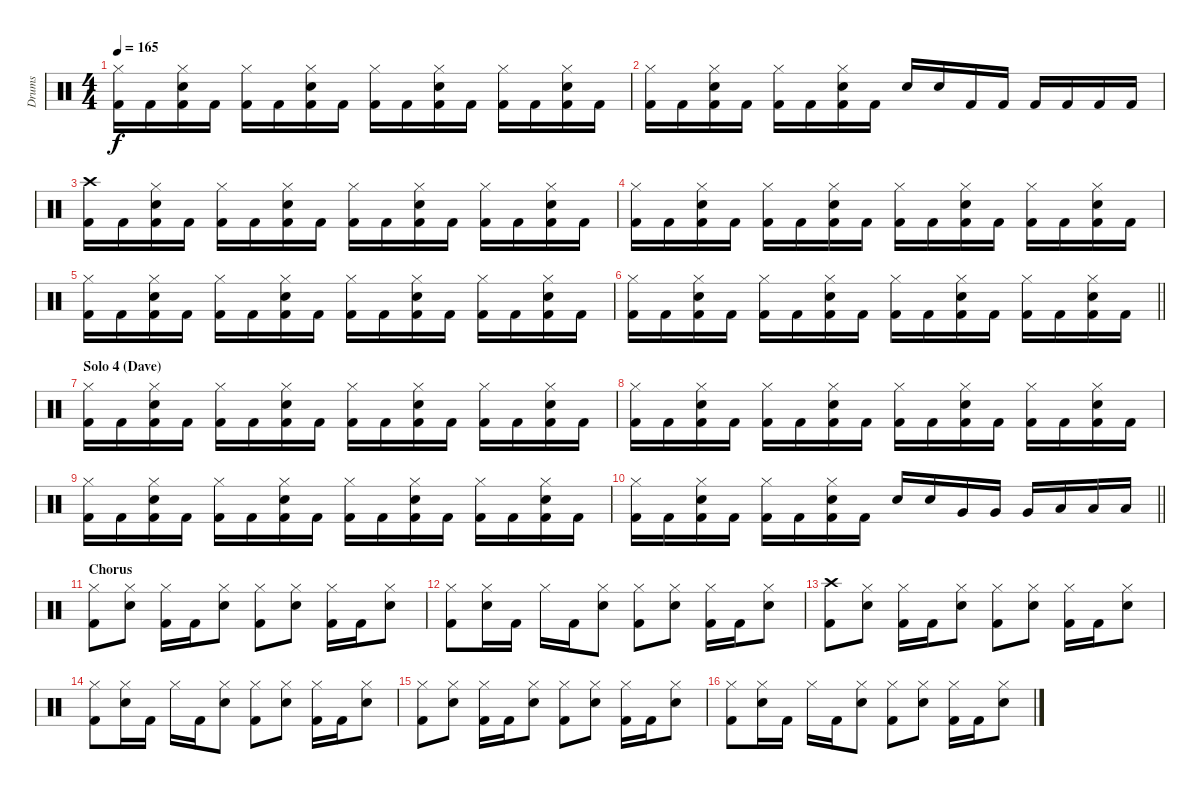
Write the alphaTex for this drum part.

\track ("Drums" "Drums") {instrument percussion}
\staff {score}
\articulation defaults
\ts (4 4)
\tempo 165
\clef neutral
\ks c
("Hi-Hat (closed)" "Kick (hit) 2").16{dy f} "Kick (hit) 2".16 ("Hi-Hat (closed)" "Snare (hit) 2" "Kick (hit) 2").16 "Kick (hit) 2".16 ("Hi-Hat (closed)" "Kick (hit) 2").16 "Kick (hit) 2".16 ("Hi-Hat (closed)" "Snare (hit) 2" "Kick (hit) 2").16 "Kick (hit) 2".16 ("Hi-Hat (closed)" "Kick (hit) 2").16 "Kick (hit) 2".16 ("Hi-Hat (closed)" "Snare (hit) 2" "Kick (hit) 2").16 "Kick (hit) 2".16 ("Hi-Hat (closed)" "Kick (hit) 2").16 "Kick (hit) 2".16 ("Hi-Hat (closed)" "Snare (hit) 2" "Kick (hit) 2").16 "Kick (hit) 2".16 |
("Hi-Hat (closed)" "Kick (hit) 2").16 "Kick (hit) 2".16 ("Hi-Hat (closed)" "Snare (hit) 2" "Kick (hit) 2").16 "Kick (hit) 2".16 ("Hi-Hat (closed)" "Kick (hit) 2").16 "Kick (hit) 2".16 ("Hi-Hat (closed)" "Snare (hit) 2" "Kick (hit) 2").16 "Kick (hit) 2".16 "Snare (hit) 2".16 "Snare (hit) 2".16 "Kick (hit) 2".16 "Kick (hit) 2".16 "Kick (hit) 2".16 "Kick (hit) 2".16 "Kick (hit) 2".16 "Kick (hit) 2".16 |
("Crash high (hit)" "Kick (hit) 2").16 "Kick (hit) 2".16 ("Hi-Hat (closed)" "Snare (hit) 2" "Kick (hit) 2").16 "Kick (hit) 2".16 ("Hi-Hat (closed)" "Kick (hit) 2").16 "Kick (hit) 2".16 ("Hi-Hat (closed)" "Snare (hit) 2" "Kick (hit) 2").16 "Kick (hit) 2".16 ("Hi-Hat (closed)" "Kick (hit) 2").16 "Kick (hit) 2".16 ("Hi-Hat (closed)" "Snare (hit) 2" "Kick (hit) 2").16 "Kick (hit) 2".16 ("Hi-Hat (closed)" "Kick (hit) 2").16 "Kick (hit) 2".16 ("Hi-Hat (closed)" "Snare (hit) 2" "Kick (hit) 2").16 "Kick (hit) 2".16 |
("Hi-Hat (closed)" "Kick (hit) 2").16 "Kick (hit) 2".16 ("Hi-Hat (closed)" "Snare (hit) 2" "Kick (hit) 2").16 "Kick (hit) 2".16 ("Hi-Hat (closed)" "Kick (hit) 2").16 "Kick (hit) 2".16 ("Hi-Hat (closed)" "Snare (hit) 2" "Kick (hit) 2").16 "Kick (hit) 2".16 ("Hi-Hat (closed)" "Kick (hit) 2").16 "Kick (hit) 2".16 ("Hi-Hat (closed)" "Snare (hit) 2" "Kick (hit) 2").16 "Kick (hit) 2".16 ("Hi-Hat (closed)" "Kick (hit) 2").16 "Kick (hit) 2".16 ("Hi-Hat (closed)" "Snare (hit) 2" "Kick (hit) 2").16 "Kick (hit) 2".16 |
("Hi-Hat (closed)" "Kick (hit) 2").16 "Kick (hit) 2".16 ("Hi-Hat (closed)" "Snare (hit) 2" "Kick (hit) 2").16 "Kick (hit) 2".16 ("Hi-Hat (closed)" "Kick (hit) 2").16 "Kick (hit) 2".16 ("Hi-Hat (closed)" "Snare (hit) 2" "Kick (hit) 2").16 "Kick (hit) 2".16 ("Hi-Hat (closed)" "Kick (hit) 2").16 "Kick (hit) 2".16 ("Hi-Hat (closed)" "Snare (hit) 2" "Kick (hit) 2").16 "Kick (hit) 2".16 ("Hi-Hat (closed)" "Kick (hit) 2").16 "Kick (hit) 2".16 ("Hi-Hat (closed)" "Snare (hit) 2" "Kick (hit) 2").16 "Kick (hit) 2".16 |
\barLineRight lightlight
("Hi-Hat (closed)" "Kick (hit) 2").16 "Kick (hit) 2".16 ("Hi-Hat (closed)" "Snare (hit) 2" "Kick (hit) 2").16 "Kick (hit) 2".16 ("Hi-Hat (closed)" "Kick (hit) 2").16 "Kick (hit) 2".16 ("Hi-Hat (closed)" "Snare (hit) 2" "Kick (hit) 2").16 "Kick (hit) 2".16 ("Hi-Hat (closed)" "Kick (hit) 2").16 "Kick (hit) 2".16 ("Hi-Hat (closed)" "Snare (hit) 2" "Kick (hit) 2").16 "Kick (hit) 2".16 ("Hi-Hat (closed)" "Kick (hit) 2").16 "Kick (hit) 2".16 ("Hi-Hat (closed)" "Snare (hit) 2" "Kick (hit) 2").16 "Kick (hit) 2".16 |
\section ("" "Solo 4 (Dave)")
("Hi-Hat (closed)" "Kick (hit) 2").16 "Kick (hit) 2".16 ("Hi-Hat (closed)" "Snare (hit) 2" "Kick (hit) 2").16 "Kick (hit) 2".16 ("Hi-Hat (closed)" "Kick (hit) 2").16 "Kick (hit) 2".16 ("Hi-Hat (closed)" "Snare (hit) 2" "Kick (hit) 2").16 "Kick (hit) 2".16 ("Hi-Hat (closed)" "Kick (hit) 2").16 "Kick (hit) 2".16 ("Hi-Hat (closed)" "Snare (hit) 2" "Kick (hit) 2").16 "Kick (hit) 2".16 ("Hi-Hat (closed)" "Kick (hit) 2").16 "Kick (hit) 2".16 ("Hi-Hat (closed)" "Snare (hit) 2" "Kick (hit) 2").16 "Kick (hit) 2".16 |
("Hi-Hat (closed)" "Kick (hit) 2").16 "Kick (hit) 2".16 ("Hi-Hat (closed)" "Snare (hit) 2" "Kick (hit) 2").16 "Kick (hit) 2".16 ("Hi-Hat (closed)" "Kick (hit) 2").16 "Kick (hit) 2".16 ("Hi-Hat (closed)" "Snare (hit) 2" "Kick (hit) 2").16 "Kick (hit) 2".16 ("Hi-Hat (closed)" "Kick (hit) 2").16 "Kick (hit) 2".16 ("Hi-Hat (closed)" "Snare (hit) 2" "Kick (hit) 2").16 "Kick (hit) 2".16 ("Hi-Hat (closed)" "Kick (hit) 2").16 "Kick (hit) 2".16 ("Hi-Hat (closed)" "Snare (hit) 2" "Kick (hit) 2").16 "Kick (hit) 2".16 |
("Hi-Hat (closed)" "Kick (hit) 2").16 "Kick (hit) 2".16 ("Hi-Hat (closed)" "Snare (hit) 2" "Kick (hit) 2").16 "Kick (hit) 2".16 ("Hi-Hat (closed)" "Kick (hit) 2").16 "Kick (hit) 2".16 ("Hi-Hat (closed)" "Snare (hit) 2" "Kick (hit) 2").16 "Kick (hit) 2".16 ("Hi-Hat (closed)" "Kick (hit) 2").16 "Kick (hit) 2".16 ("Hi-Hat (closed)" "Snare (hit) 2" "Kick (hit) 2").16 "Kick (hit) 2".16 ("Hi-Hat (closed)" "Kick (hit) 2").16 "Kick (hit) 2".16 ("Hi-Hat (closed)" "Snare (hit) 2" "Kick (hit) 2").16 "Kick (hit) 2".16 |
\barLineRight lightlight
("Hi-Hat (closed)" "Kick (hit) 2").16 "Kick (hit) 2".16 ("Hi-Hat (closed)" "Snare (hit) 2" "Kick (hit) 2").16 "Kick (hit) 2".16 ("Hi-Hat (closed)" "Kick (hit) 2").16 "Kick (hit) 2".16 ("Hi-Hat (closed)" "Snare (hit) 2" "Kick (hit) 2").16 "Kick (hit) 2".16 "Snare (hit) 2".16 "Snare (hit) 2".16 "Very Low Tom (hit)".16 "Very Low Tom (hit)".16 "Very Low Tom (hit)".16 "Low Floor Tom (hit)".16 "Low Floor Tom (hit)".16 "Low Floor Tom (hit)".16 |
\section ("" "Chorus")
("Hi-Hat (closed)" "Kick (hit) 2").8 ("Hi-Hat (closed)" "Snare (hit) 2").8 ("Hi-Hat (closed)" "Kick (hit) 2").16 "Kick (hit) 2".16 ("Hi-Hat (closed)" "Snare (hit) 2").8 ("Hi-Hat (closed)" "Kick (hit) 2").8 ("Hi-Hat (closed)" "Snare (hit) 2").8 ("Hi-Hat (closed)" "Kick (hit) 2").16 "Kick (hit) 2".16 ("Hi-Hat (closed)" "Snare (hit) 2").8 |
("Hi-Hat (closed)" "Kick (hit) 2").8 ("Hi-Hat (closed)" "Snare (hit) 2").16 "Kick (hit) 2".16 "Hi-Hat (closed)".16 "Kick (hit) 2".16 ("Hi-Hat (closed)" "Snare (hit) 2").8 ("Hi-Hat (closed)" "Kick (hit) 2").8 ("Hi-Hat (closed)" "Snare (hit) 2").8 ("Hi-Hat (closed)" "Kick (hit) 2").16 "Kick (hit) 2".16 ("Hi-Hat (closed)" "Snare (hit) 2").8 |
("Crash high (hit)" "Kick (hit) 2").8 ("Hi-Hat (closed)" "Snare (hit) 2").8 ("Hi-Hat (closed)" "Kick (hit) 2").16 "Kick (hit) 2".16 ("Hi-Hat (closed)" "Snare (hit) 2").8 ("Hi-Hat (closed)" "Kick (hit) 2").8 ("Hi-Hat (closed)" "Snare (hit) 2").8 ("Hi-Hat (closed)" "Kick (hit) 2").16 "Kick (hit) 2".16 ("Hi-Hat (closed)" "Snare (hit) 2").8 |
("Hi-Hat (closed)" "Kick (hit) 2").8 ("Hi-Hat (closed)" "Snare (hit) 2").16 "Kick (hit) 2".16 "Hi-Hat (closed)".16 "Kick (hit) 2".16 ("Hi-Hat (closed)" "Snare (hit) 2").8 ("Hi-Hat (closed)" "Kick (hit) 2").8 ("Hi-Hat (closed)" "Snare (hit) 2").8 ("Hi-Hat (closed)" "Kick (hit) 2").16 "Kick (hit) 2".16 ("Hi-Hat (closed)" "Snare (hit) 2").8 |
("Hi-Hat (closed)" "Kick (hit) 2").8 ("Hi-Hat (closed)" "Snare (hit) 2").8 ("Hi-Hat (closed)" "Kick (hit) 2").16 "Kick (hit) 2".16 ("Hi-Hat (closed)" "Snare (hit) 2").8 ("Hi-Hat (closed)" "Kick (hit) 2").8 ("Hi-Hat (closed)" "Snare (hit) 2").8 ("Hi-Hat (closed)" "Kick (hit) 2").16 "Kick (hit) 2".16 ("Hi-Hat (closed)" "Snare (hit) 2").8 |
("Hi-Hat (closed)" "Kick (hit) 2").8 ("Hi-Hat (closed)" "Snare (hit) 2").16 "Kick (hit) 2".16 "Hi-Hat (closed)".16 "Kick (hit) 2".16 ("Hi-Hat (closed)" "Snare (hit) 2").8 ("Hi-Hat (closed)" "Kick (hit) 2").8 ("Hi-Hat (closed)" "Snare (hit) 2").8 ("Hi-Hat (closed)" "Kick (hit) 2").16 "Kick (hit) 2".16 ("Hi-Hat (closed)" "Snare (hit) 2").8
